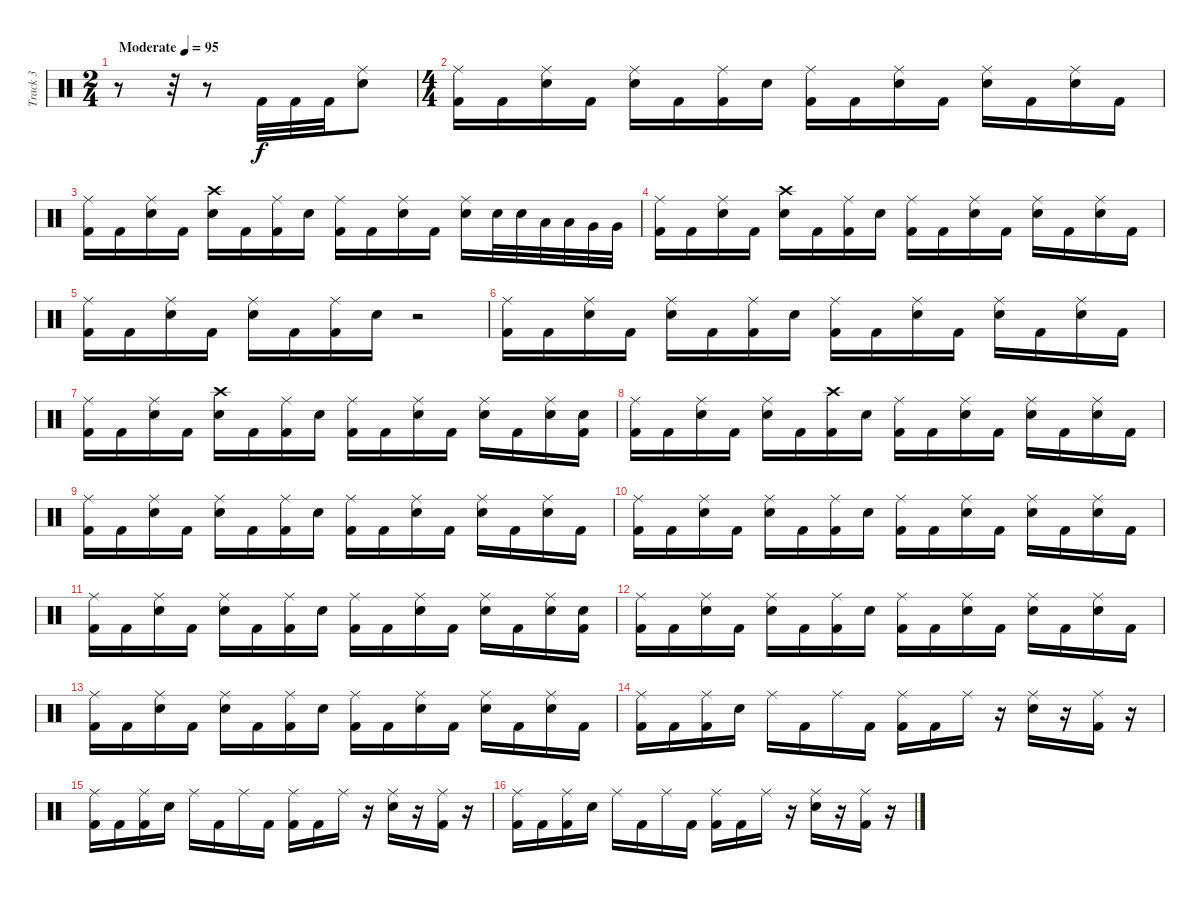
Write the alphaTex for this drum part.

\track ("Track 3" "Track 3") {instrument percussion}
\staff {score}
\articulation defaults
\ts (2 4)
\tempo (95 "Moderate")
\clef neutral
\ks c
r.8{dy f} r.32 r.8 "Kick (hit) 2".32 "Kick (hit) 2".32 "Kick (hit) 2".32 ("Ride (middle)" "Snare (hit) 2").8 |
\ts (4 4)
("Ride (middle)" "Kick (hit) 2").16 "Kick (hit) 2".16 ("Ride (middle)" "Snare (hit) 2").16 "Kick (hit) 2".16 ("Ride (middle)" "Snare (hit) 2").16 "Kick (hit) 2".16 ("Ride (middle)" "Kick (hit) 2").16 "Snare (hit) 2".16 ("Ride (middle)" "Kick (hit) 2").16 "Kick (hit) 2".16 ("Ride (middle)" "Snare (hit) 2").16 "Kick (hit) 2".16 ("Ride (middle)" "Snare (hit) 2").16 "Kick (hit) 2".16 ("Ride (middle)" "Snare (hit) 2").16 "Kick (hit) 2".16 |
("Ride (middle)" "Kick (hit) 2").16 "Kick (hit) 2".16 ("Ride (middle)" "Snare (hit) 2").16 "Kick (hit) 2".16 ("Crash high (hit)" "Snare (hit) 2").16 "Kick (hit) 2".16 ("Ride (middle)" "Kick (hit) 2").16 "Snare (hit) 2".16 ("Ride (middle)" "Kick (hit) 2").16 "Kick (hit) 2".16 ("Ride (middle)" "Snare (hit) 2").16 "Kick (hit) 2".16 ("Ride (middle)" "Snare (hit) 2").16 "Snare (hit) 2".32 "Snare (hit) 2".32 "Low Tom (hit)".32 "Low Tom (hit)".32 "Very Low Tom (hit)".32 "Very Low Tom (hit)".32 |
("Ride (middle)" "Kick (hit) 2").16 "Kick (hit) 2".16 ("Ride (middle)" "Snare (hit) 2").16 "Kick (hit) 2".16 ("Crash high (hit)" "Snare (hit) 2").16 "Kick (hit) 2".16 ("Ride (middle)" "Kick (hit) 2").16 "Snare (hit) 2".16 ("Ride (middle)" "Kick (hit) 2").16 "Kick (hit) 2".16 ("Ride (middle)" "Snare (hit) 2").16 "Kick (hit) 2".16 ("Ride (middle)" "Snare (hit) 2").16 "Kick (hit) 2".16 ("Ride (middle)" "Snare (hit) 2").16 "Kick (hit) 2".16 |
("Ride (middle)" "Kick (hit) 2").16 "Kick (hit) 2".16 ("Ride (middle)" "Snare (hit) 2").16 "Kick (hit) 2".16 ("Ride (middle)" "Snare (hit) 2").16 "Kick (hit) 2".16 ("Ride (middle)" "Kick (hit) 2").16 "Snare (hit) 2".16 r.2 |
("Ride (middle)" "Kick (hit) 2").16 "Kick (hit) 2".16 ("Ride (middle)" "Snare (hit) 2").16 "Kick (hit) 2".16 ("Ride (middle)" "Snare (hit) 2").16 "Kick (hit) 2".16 ("Ride (middle)" "Kick (hit) 2").16 "Snare (hit) 2".16 ("Ride (middle)" "Kick (hit) 2").16 "Kick (hit) 2".16 ("Ride (middle)" "Snare (hit) 2").16 "Kick (hit) 2".16 ("Ride (middle)" "Snare (hit) 2").16 "Kick (hit) 2".16 ("Ride (middle)" "Snare (hit) 2").16 "Kick (hit) 2".16 |
("Ride (middle)" "Kick (hit) 2").16 "Kick (hit) 2".16 ("Ride (middle)" "Snare (hit) 2").16 "Kick (hit) 2".16 ("Crash high (hit)" "Snare (hit) 2").16 "Kick (hit) 2".16 ("Ride (middle)" "Kick (hit) 2").16 "Snare (hit) 2".16 ("Ride (middle)" "Kick (hit) 2").16 "Kick (hit) 2".16 ("Ride (middle)" "Snare (hit) 2").16 "Kick (hit) 2".16 ("Ride (middle)" "Snare (hit) 2").16 "Kick (hit) 2".16 ("Ride (middle)" "Snare (hit) 2").16 ("Snare (hit) 2" "Kick (hit) 2").16 |
("Ride (middle)" "Kick (hit) 2").16 "Kick (hit) 2".16 ("Ride (middle)" "Snare (hit) 2").16 "Kick (hit) 2".16 ("Ride (middle)" "Snare (hit) 2").16 "Kick (hit) 2".16 ("Crash high (hit)" "Kick (hit) 2").16 "Snare (hit) 2".16 ("Ride (middle)" "Kick (hit) 2").16 "Kick (hit) 2".16 ("Ride (middle)" "Snare (hit) 2").16 "Kick (hit) 2".16 ("Ride (middle)" "Snare (hit) 2").16 "Kick (hit) 2".16 ("Ride (middle)" "Snare (hit) 2").16 "Kick (hit) 2".16 |
("Ride (middle)" "Kick (hit) 2").16 "Kick (hit) 2".16 ("Ride (middle)" "Snare (hit) 2").16 "Kick (hit) 2".16 ("Ride (middle)" "Snare (hit) 2").16 "Kick (hit) 2".16 ("Ride (middle)" "Kick (hit) 2").16 "Snare (hit) 2".16 ("Ride (middle)" "Kick (hit) 2").16 "Kick (hit) 2".16 ("Ride (middle)" "Snare (hit) 2").16 "Kick (hit) 2".16 ("Ride (middle)" "Snare (hit) 2").16 "Kick (hit) 2".16 ("Ride (middle)" "Snare (hit) 2").16 "Kick (hit) 2".16 |
("Ride (middle)" "Kick (hit) 2").16 "Kick (hit) 2".16 ("Ride (middle)" "Snare (hit) 2").16 "Kick (hit) 2".16 ("Ride (middle)" "Snare (hit) 2").16 "Kick (hit) 2".16 ("Ride (middle)" "Kick (hit) 2").16 "Snare (hit) 2".16 ("Ride (middle)" "Kick (hit) 2").16 "Kick (hit) 2".16 ("Ride (middle)" "Snare (hit) 2").16 "Kick (hit) 2".16 ("Ride (middle)" "Snare (hit) 2").16 "Kick (hit) 2".16 ("Ride (middle)" "Snare (hit) 2").16 "Kick (hit) 2".16 |
("Ride (middle)" "Kick (hit) 2").16 "Kick (hit) 2".16 ("Ride (middle)" "Snare (hit) 2").16 "Kick (hit) 2".16 ("Ride (middle)" "Snare (hit) 2").16 "Kick (hit) 2".16 ("Ride (middle)" "Kick (hit) 2").16 "Snare (hit) 2".16 ("Ride (middle)" "Kick (hit) 2").16 "Kick (hit) 2".16 ("Ride (middle)" "Snare (hit) 2").16 "Kick (hit) 2".16 ("Ride (middle)" "Snare (hit) 2").16 "Kick (hit) 2".16 ("Ride (middle)" "Snare (hit) 2").16 ("Snare (hit) 2" "Kick (hit) 2").16 |
("Ride (middle)" "Kick (hit) 2").16 "Kick (hit) 2".16 ("Ride (middle)" "Snare (hit) 2").16 "Kick (hit) 2".16 ("Ride (middle)" "Snare (hit) 2").16 "Kick (hit) 2".16 ("Ride (middle)" "Kick (hit) 2").16 "Snare (hit) 2".16 ("Ride (middle)" "Kick (hit) 2").16 "Kick (hit) 2".16 ("Ride (middle)" "Snare (hit) 2").16 "Kick (hit) 2".16 ("Ride (middle)" "Snare (hit) 2").16 "Kick (hit) 2".16 ("Ride (middle)" "Snare (hit) 2").16 "Kick (hit) 2".16 |
("Ride (middle)" "Kick (hit) 2").16 "Kick (hit) 2".16 ("Ride (middle)" "Snare (hit) 2").16 "Kick (hit) 2".16 ("Ride (middle)" "Snare (hit) 2").16 "Kick (hit) 2".16 ("Ride (middle)" "Kick (hit) 2").16 "Snare (hit) 2".16 ("Ride (middle)" "Kick (hit) 2").16 "Kick (hit) 2".16 ("Ride (middle)" "Snare (hit) 2").16 "Kick (hit) 2".16 ("Ride (middle)" "Snare (hit) 2").16 "Kick (hit) 2".16 ("Ride (middle)" "Snare (hit) 2").16 "Kick (hit) 2".16 |
("Ride (middle)" "Kick (hit) 2").16 "Kick (hit) 2".16 ("Ride (middle)" "Kick (hit) 2").16 "Snare (hit) 2".16 "Ride (middle)".16 "Kick (hit) 2".16 "Ride (middle)".16 "Kick (hit) 2".16 ("Ride (middle)" "Kick (hit) 2").16 "Kick (hit) 2".16 "Ride (middle)".16 r.16 ("Ride (middle)" "Snare (hit) 2").16 r.16 ("Ride (middle)" "Kick (hit) 2").16 r.16 |
("Ride (middle)" "Kick (hit) 2").16 "Kick (hit) 2".16 ("Ride (middle)" "Kick (hit) 2").16 "Snare (hit) 2".16 "Ride (middle)".16 "Kick (hit) 2".16 "Ride (middle)".16 "Kick (hit) 2".16 ("Ride (middle)" "Kick (hit) 2").16 "Kick (hit) 2".16 "Ride (middle)".16 r.16 ("Ride (middle)" "Snare (hit) 2").16 r.16 ("Ride (middle)" "Kick (hit) 2").16 r.16 |
("Ride (middle)" "Kick (hit) 2").16 "Kick (hit) 2".16 ("Ride (middle)" "Kick (hit) 2").16 "Snare (hit) 2".16 "Ride (middle)".16 "Kick (hit) 2".16 "Ride (middle)".16 "Kick (hit) 2".16 ("Ride (middle)" "Kick (hit) 2").16 "Kick (hit) 2".16 "Ride (middle)".16 r.16 ("Ride (middle)" "Snare (hit) 2").16 r.16 ("Ride (middle)" "Kick (hit) 2").16 r.16
